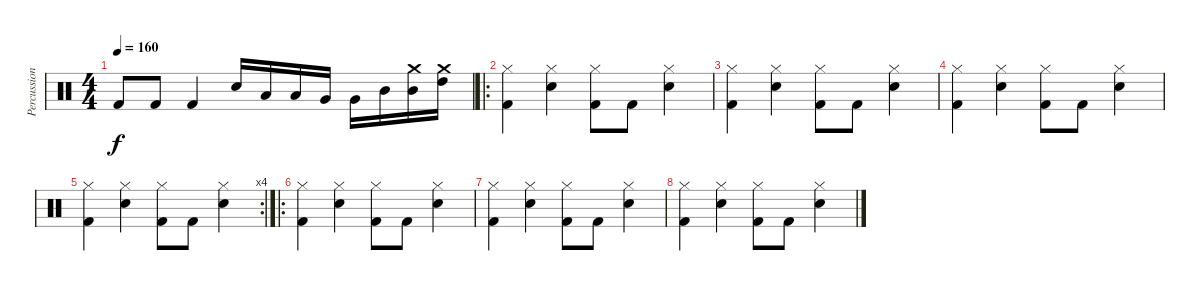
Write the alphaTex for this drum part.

\track ("Percussions" "Percussion") {instrument percussion}
\staff {score}
\articulation defaults
\ts (4 4)
\tempo 160
\clef neutral
\ks c "Kick (hit) 2".8{dy f} "Kick (hit) 2".8 "Kick (hit) 2".4 "Electric Snare (hit)".16 "Low Tom (hit)".16 "Low Tom (hit)".16 "Very Low Tom (hit)".16 "Very Low Tom (hit)".16 "Mid Tom (hit)".16
("Mid Tom (hit)" "Crash medium (hit)"{t}).16 ("High Tom (hit)" "Crash medium (hit)").16 |
\ro
("Kick (hit) 2" "Hi-Hat (closed)").4 ("Electric Snare (hit)" "Hi-Hat (closed)").4 ("Kick (hit) 2" "Hi-Hat (closed)").8 "Kick (hit) 2".8 ("Electric Snare (hit)" "Hi-Hat (closed)").4 |
("Kick (hit) 2" "Hi-Hat (closed)").4 ("Electric Snare (hit)" "Hi-Hat (closed)").4 ("Kick (hit) 2" "Hi-Hat (closed)").8 "Kick (hit) 2".8 ("Electric Snare (hit)" "Hi-Hat (closed)").4 |
("Kick (hit) 2" "Hi-Hat (closed)").4 ("Electric Snare (hit)" "Hi-Hat (closed)").4 ("Kick (hit) 2" "Hi-Hat (closed)").8 "Kick (hit) 2".8 ("Electric Snare (hit)" "Hi-Hat (closed)").4 |
\rc 4
("Kick (hit) 2" "Hi-Hat (closed)").4 ("Electric Snare (hit)" "Hi-Hat (closed)").4 ("Kick (hit) 2" "Hi-Hat (closed)").8 "Kick (hit) 2".8 ("Electric Snare (hit)" "Hi-Hat (closed)").4 |
\ro
("Kick (hit) 2" "Hi-Hat (closed)").4 ("Electric Snare (hit)" "Hi-Hat (closed)").4 ("Kick (hit) 2" "Hi-Hat (closed)").8 "Kick (hit) 2".8 ("Electric Snare (hit)" "Hi-Hat (closed)").4 |
("Kick (hit) 2" "Hi-Hat (closed)").4 ("Electric Snare (hit)" "Hi-Hat (closed)").4 ("Kick (hit) 2" "Hi-Hat (closed)").8 "Kick (hit) 2".8 ("Electric Snare (hit)" "Hi-Hat (closed)").4 |
("Kick (hit) 2" "Hi-Hat (closed)").4 ("Electric Snare (hit)" "Hi-Hat (closed)").4 ("Kick (hit) 2" "Hi-Hat (closed)").8 "Kick (hit) 2".8 ("Electric Snare (hit)" "Hi-Hat (closed)").4
